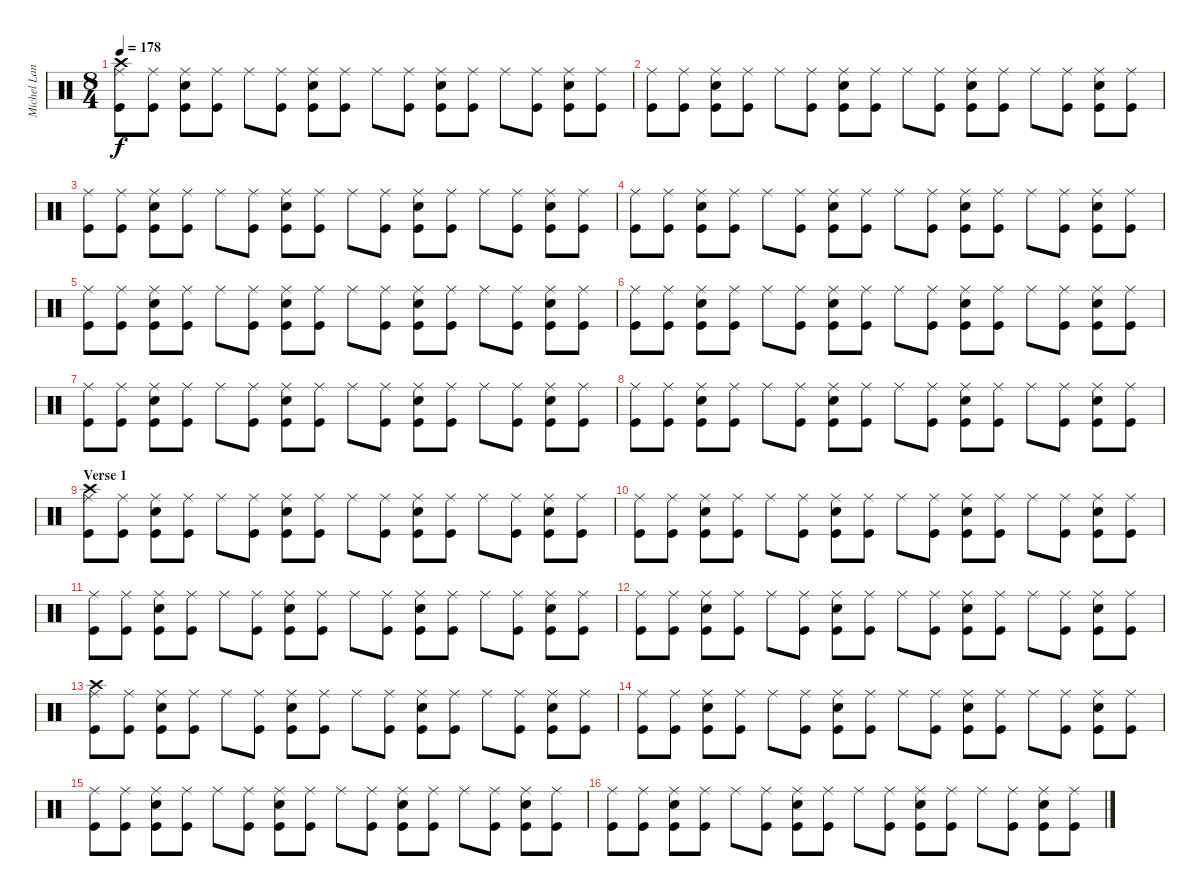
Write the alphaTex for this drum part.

\track ("Michel Langevin [Drums]" "Michel Lan") {instrument percussion}
\staff {score}
\articulation defaults
\ts (8 4)
\tempo 178
\clef neutral
\ks c
("Kick (hit)" "Ride (middle)" "Crash high (hit)").8{dy f} ("Kick (hit)" "Ride (middle)").8 ("Snare (hit) 2" "Kick (hit)" "Ride (middle)").8 ("Kick (hit)" "Ride (middle)").8 "Ride (middle)".8 ("Kick (hit)" "Ride (middle)").8 ("Snare (hit) 2" "Kick (hit)" "Ride (middle)").8 ("Kick (hit)" "Ride (middle)").8 "Ride (middle)".8 ("Kick (hit)" "Ride (middle)").8 ("Snare (hit) 2" "Kick (hit)" "Ride (middle)").8 ("Kick (hit)" "Ride (middle)").8 "Ride (middle)".8 ("Kick (hit)" "Ride (middle)").8 ("Snare (hit) 2" "Kick (hit)" "Ride (middle)").8 ("Kick (hit)" "Ride (middle)").8 |
("Kick (hit)" "Ride (middle)").8 ("Kick (hit)" "Ride (middle)").8 ("Snare (hit) 2" "Kick (hit)" "Ride (middle)").8 ("Kick (hit)" "Ride (middle)").8 "Ride (middle)".8 ("Kick (hit)" "Ride (middle)").8 ("Snare (hit) 2" "Kick (hit)" "Ride (middle)").8 ("Kick (hit)" "Ride (middle)").8 "Ride (middle)".8 ("Kick (hit)" "Ride (middle)").8 ("Snare (hit) 2" "Kick (hit)" "Ride (middle)").8 ("Kick (hit)" "Ride (middle)").8 "Ride (middle)".8 ("Kick (hit)" "Ride (middle)").8 ("Snare (hit) 2" "Kick (hit)" "Ride (middle)").8 ("Kick (hit)" "Ride (middle)").8 |
("Kick (hit)" "Ride (middle)").8 ("Kick (hit)" "Ride (middle)").8 ("Snare (hit) 2" "Kick (hit)" "Ride (middle)").8 ("Kick (hit)" "Ride (middle)").8 "Ride (middle)".8 ("Kick (hit)" "Ride (middle)").8 ("Snare (hit) 2" "Kick (hit)" "Ride (middle)").8 ("Kick (hit)" "Ride (middle)").8 "Ride (middle)".8 ("Kick (hit)" "Ride (middle)").8 ("Snare (hit) 2" "Kick (hit)" "Ride (middle)").8 ("Kick (hit)" "Ride (middle)").8 "Ride (middle)".8 ("Kick (hit)" "Ride (middle)").8 ("Snare (hit) 2" "Kick (hit)" "Ride (middle)").8 ("Kick (hit)" "Ride (middle)").8 |
("Kick (hit)" "Ride (middle)").8 ("Kick (hit)" "Ride (middle)").8 ("Snare (hit) 2" "Kick (hit)" "Ride (middle)").8 ("Kick (hit)" "Ride (middle)").8 "Ride (middle)".8 ("Kick (hit)" "Ride (middle)").8 ("Snare (hit) 2" "Kick (hit)" "Ride (middle)").8 ("Kick (hit)" "Ride (middle)").8 "Ride (middle)".8 ("Kick (hit)" "Ride (middle)").8 ("Snare (hit) 2" "Kick (hit)" "Ride (middle)").8 ("Kick (hit)" "Ride (middle)").8 "Ride (middle)".8 ("Kick (hit)" "Ride (middle)").8 ("Snare (hit) 2" "Kick (hit)" "Ride (middle)").8 ("Kick (hit)" "Ride (middle)").8 |
("Kick (hit)" "Ride (middle)").8 ("Kick (hit)" "Ride (middle)").8 ("Snare (hit) 2" "Kick (hit)" "Ride (middle)").8 ("Kick (hit)" "Ride (middle)").8 "Ride (middle)".8 ("Kick (hit)" "Ride (middle)").8 ("Snare (hit) 2" "Kick (hit)" "Ride (middle)").8 ("Kick (hit)" "Ride (middle)").8 "Ride (middle)".8 ("Kick (hit)" "Ride (middle)").8 ("Snare (hit) 2" "Kick (hit)" "Ride (middle)").8 ("Kick (hit)" "Ride (middle)").8 "Ride (middle)".8 ("Kick (hit)" "Ride (middle)").8 ("Snare (hit) 2" "Kick (hit)" "Ride (middle)").8 ("Kick (hit)" "Ride (middle)").8 |
("Kick (hit)" "Ride (middle)").8 ("Kick (hit)" "Ride (middle)").8 ("Snare (hit) 2" "Kick (hit)" "Ride (middle)").8 ("Kick (hit)" "Ride (middle)").8 "Ride (middle)".8 ("Kick (hit)" "Ride (middle)").8 ("Snare (hit) 2" "Kick (hit)" "Ride (middle)").8 ("Kick (hit)" "Ride (middle)").8 "Ride (middle)".8 ("Kick (hit)" "Ride (middle)").8 ("Snare (hit) 2" "Kick (hit)" "Ride (middle)").8 ("Kick (hit)" "Ride (middle)").8 "Ride (middle)".8 ("Kick (hit)" "Ride (middle)").8 ("Snare (hit) 2" "Kick (hit)" "Ride (middle)").8 ("Kick (hit)" "Ride (middle)").8 |
("Kick (hit)" "Ride (middle)").8 ("Kick (hit)" "Ride (middle)").8 ("Snare (hit) 2" "Kick (hit)" "Ride (middle)").8 ("Kick (hit)" "Ride (middle)").8 "Ride (middle)".8 ("Kick (hit)" "Ride (middle)").8 ("Snare (hit) 2" "Kick (hit)" "Ride (middle)").8 ("Kick (hit)" "Ride (middle)").8 "Ride (middle)".8 ("Kick (hit)" "Ride (middle)").8 ("Snare (hit) 2" "Kick (hit)" "Ride (middle)").8 ("Kick (hit)" "Ride (middle)").8 "Ride (middle)".8 ("Kick (hit)" "Ride (middle)").8 ("Snare (hit) 2" "Kick (hit)" "Ride (middle)").8 ("Kick (hit)" "Ride (middle)").8 |
("Kick (hit)" "Ride (middle)").8 ("Kick (hit)" "Ride (middle)").8 ("Snare (hit) 2" "Kick (hit)" "Ride (middle)").8 ("Kick (hit)" "Ride (middle)").8 "Ride (middle)".8 ("Kick (hit)" "Ride (middle)").8 ("Snare (hit) 2" "Kick (hit)" "Ride (middle)").8 ("Kick (hit)" "Ride (middle)").8 "Ride (middle)".8 ("Kick (hit)" "Ride (middle)").8 ("Snare (hit) 2" "Kick (hit)" "Ride (middle)").8 ("Kick (hit)" "Ride (middle)").8 "Ride (middle)".8 ("Kick (hit)" "Ride (middle)").8 ("Snare (hit) 2" "Kick (hit)" "Ride (middle)").8 ("Kick (hit)" "Ride (middle)").8 |
\section ("" "Verse 1")
("Kick (hit)" "Ride (middle)" "Crash high (hit)").8 ("Kick (hit)" "Ride (middle)").8 ("Snare (hit) 2" "Kick (hit)" "Ride (middle)").8 ("Kick (hit)" "Ride (middle)").8 "Ride (middle)".8 ("Kick (hit)" "Ride (middle)").8 ("Snare (hit) 2" "Kick (hit)" "Ride (middle)").8 ("Kick (hit)" "Ride (middle)").8 "Ride (middle)".8 ("Kick (hit)" "Ride (middle)").8 ("Snare (hit) 2" "Kick (hit)" "Ride (middle)").8 ("Kick (hit)" "Ride (middle)").8 "Ride (middle)".8 ("Kick (hit)" "Ride (middle)").8 ("Snare (hit) 2" "Kick (hit)" "Ride (middle)").8 ("Kick (hit)" "Ride (middle)").8 |
("Kick (hit)" "Ride (middle)").8 ("Kick (hit)" "Ride (middle)").8 ("Snare (hit) 2" "Kick (hit)" "Ride (middle)").8 ("Kick (hit)" "Ride (middle)").8 "Ride (middle)".8 ("Kick (hit)" "Ride (middle)").8 ("Snare (hit) 2" "Kick (hit)" "Ride (middle)").8 ("Kick (hit)" "Ride (middle)").8 "Ride (middle)".8 ("Kick (hit)" "Ride (middle)").8 ("Snare (hit) 2" "Kick (hit)" "Ride (middle)").8 ("Kick (hit)" "Ride (middle)").8 "Ride (middle)".8 ("Kick (hit)" "Ride (middle)").8 ("Snare (hit) 2" "Kick (hit)" "Ride (middle)").8 ("Kick (hit)" "Ride (middle)").8 |
("Kick (hit)" "Ride (middle)").8 ("Kick (hit)" "Ride (middle)").8 ("Snare (hit) 2" "Kick (hit)" "Ride (middle)").8 ("Kick (hit)" "Ride (middle)").8 "Ride (middle)".8 ("Kick (hit)" "Ride (middle)").8 ("Snare (hit) 2" "Kick (hit)" "Ride (middle)").8 ("Kick (hit)" "Ride (middle)").8 "Ride (middle)".8 ("Kick (hit)" "Ride (middle)").8 ("Snare (hit) 2" "Kick (hit)" "Ride (middle)").8 ("Kick (hit)" "Ride (middle)").8 "Ride (middle)".8 ("Kick (hit)" "Ride (middle)").8 ("Snare (hit) 2" "Kick (hit)" "Ride (middle)").8 ("Kick (hit)" "Ride (middle)").8 |
("Kick (hit)" "Ride (middle)").8 ("Kick (hit)" "Ride (middle)").8 ("Snare (hit) 2" "Kick (hit)" "Ride (middle)").8 ("Kick (hit)" "Ride (middle)").8 "Ride (middle)".8 ("Kick (hit)" "Ride (middle)").8 ("Snare (hit) 2" "Kick (hit)" "Ride (middle)").8 ("Kick (hit)" "Ride (middle)").8 "Ride (middle)".8 ("Kick (hit)" "Ride (middle)").8 ("Snare (hit) 2" "Kick (hit)" "Ride (middle)").8 ("Kick (hit)" "Ride (middle)").8 "Ride (middle)".8 ("Kick (hit)" "Ride (middle)").8 ("Snare (hit) 2" "Kick (hit)" "Ride (middle)").8 ("Kick (hit)" "Ride (middle)").8 |
("Kick (hit)" "Ride (middle)" "Crash high (hit)").8 ("Kick (hit)" "Ride (middle)").8 ("Snare (hit) 2" "Kick (hit)" "Ride (middle)").8 ("Kick (hit)" "Ride (middle)").8 "Ride (middle)".8 ("Kick (hit)" "Ride (middle)").8 ("Snare (hit) 2" "Kick (hit)" "Ride (middle)").8 ("Kick (hit)" "Ride (middle)").8 "Ride (middle)".8 ("Kick (hit)" "Ride (middle)").8 ("Snare (hit) 2" "Kick (hit)" "Ride (middle)").8 ("Kick (hit)" "Ride (middle)").8 "Ride (middle)".8 ("Kick (hit)" "Ride (middle)").8 ("Snare (hit) 2" "Kick (hit)" "Ride (middle)").8 ("Kick (hit)" "Ride (middle)").8 |
("Kick (hit)" "Ride (middle)").8 ("Kick (hit)" "Ride (middle)").8 ("Snare (hit) 2" "Kick (hit)" "Ride (middle)").8 ("Kick (hit)" "Ride (middle)").8 "Ride (middle)".8 ("Kick (hit)" "Ride (middle)").8 ("Snare (hit) 2" "Kick (hit)" "Ride (middle)").8 ("Kick (hit)" "Ride (middle)").8 "Ride (middle)".8 ("Kick (hit)" "Ride (middle)").8 ("Snare (hit) 2" "Kick (hit)" "Ride (middle)").8 ("Kick (hit)" "Ride (middle)").8 "Ride (middle)".8 ("Kick (hit)" "Ride (middle)").8 ("Snare (hit) 2" "Kick (hit)" "Ride (middle)").8 ("Kick (hit)" "Ride (middle)").8 |
("Kick (hit)" "Ride (middle)").8 ("Kick (hit)" "Ride (middle)").8 ("Snare (hit) 2" "Kick (hit)" "Ride (middle)").8 ("Kick (hit)" "Ride (middle)").8 "Ride (middle)".8 ("Kick (hit)" "Ride (middle)").8 ("Snare (hit) 2" "Kick (hit)" "Ride (middle)").8 ("Kick (hit)" "Ride (middle)").8 "Ride (middle)".8 ("Kick (hit)" "Ride (middle)").8 ("Snare (hit) 2" "Kick (hit)" "Ride (middle)").8 ("Kick (hit)" "Ride (middle)").8 "Ride (middle)".8 ("Kick (hit)" "Ride (middle)").8 ("Snare (hit) 2" "Kick (hit)" "Ride (middle)").8 ("Kick (hit)" "Ride (middle)").8 |
("Kick (hit)" "Ride (middle)").8 ("Kick (hit)" "Ride (middle)").8 ("Snare (hit) 2" "Kick (hit)" "Ride (middle)").8 ("Kick (hit)" "Ride (middle)").8 "Ride (middle)".8 ("Kick (hit)" "Ride (middle)").8 ("Snare (hit) 2" "Kick (hit)" "Ride (middle)").8 ("Kick (hit)" "Ride (middle)").8 "Ride (middle)".8 ("Kick (hit)" "Ride (middle)").8 ("Snare (hit) 2" "Kick (hit)" "Ride (middle)").8 ("Kick (hit)" "Ride (middle)").8 "Ride (middle)".8 ("Kick (hit)" "Ride (middle)").8 ("Snare (hit) 2" "Kick (hit)" "Ride (middle)").8 ("Kick (hit)" "Ride (middle)").8
